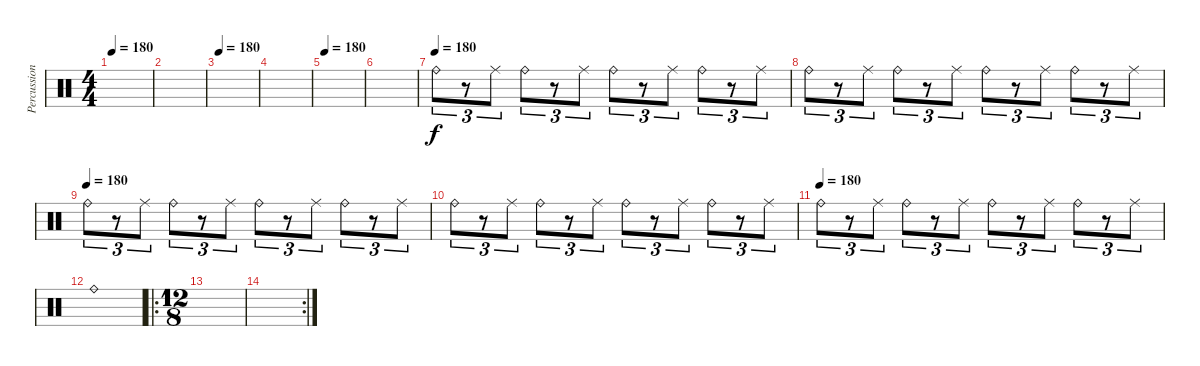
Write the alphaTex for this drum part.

\track ("Percussion" "Percussion") {instrument percussion}
\staff {score}
\articulation defaults
\ts (4 4)
\tempo 180
\clef neutral
\ks c
|
|
\tempo 180
|
|
\tempo 180
|
|
\tempo (180)
"Ride (bell)".8{tu (3 2)} r.8{tu (3 2)} "Ride (middle)".8{tu (3 2)} "Ride (bell)".8{tu (3 2)} r.8{tu (3 2)} "Ride (middle)".8{tu (3 2)} "Ride (bell)".8{tu (3 2)} r.8{tu (3 2)} "Ride (middle)".8{tu (3 2)} "Ride (bell)".8{tu (3 2)} r.8{tu (3 2)} "Ride (middle)".8{tu (3 2)} |
"Ride (bell)".8{tu (3 2)} r.8{tu (3 2)} "Ride (middle)".8{tu (3 2)} "Ride (bell)".8{tu (3 2)} r.8{tu (3 2)} "Ride (middle)".8{tu (3 2)} "Ride (bell)".8{tu (3 2)} r.8{tu (3 2)} "Ride (middle)".8{tu (3 2)} "Ride (bell)".8{tu (3 2)} r.8{tu (3 2)} "Ride (middle)".8{tu (3 2)} |
\tempo (180)
"Ride (bell)".8{tu (3 2)} r.8{tu (3 2)} "Ride (middle)".8{tu (3 2)} "Ride (bell)".8{tu (3 2)} r.8{tu (3 2)} "Ride (middle)".8{tu (3 2)} "Ride (bell)".8{tu (3 2)} r.8{tu (3 2)} "Ride (middle)".8{tu (3 2)} "Ride (bell)".8{tu (3 2)} r.8{tu (3 2)} "Ride (middle)".8{tu (3 2)} |
"Ride (bell)".8{tu (3 2)} r.8{tu (3 2)} "Ride (middle)".8{tu (3 2)} "Ride (bell)".8{tu (3 2)} r.8{tu (3 2)} "Ride (middle)".8{tu (3 2)} "Ride (bell)".8{tu (3 2)} r.8{tu (3 2)} "Ride (middle)".8{tu (3 2)} "Ride (bell)".8{tu (3 2)} r.8{tu (3 2)} "Ride (middle)".8{tu (3 2)} |
\tempo (180)
"Ride (bell)".8{tu (3 2)} r.8{tu (3 2)} "Ride (middle)".8{tu (3 2)} "Ride (bell)".8{tu (3 2)} r.8{tu (3 2)} "Ride (middle)".8{tu (3 2)} "Ride (bell)".8{tu (3 2)} r.8{tu (3 2)} "Ride (middle)".8{tu (3 2)} "Ride (bell)".8{tu (3 2)} r.8{tu (3 2)} "Ride (middle)".8{tu (3 2)} |
"Ride (bell)".1 |
\ro
\ts (12 8)
|
\rc 2
